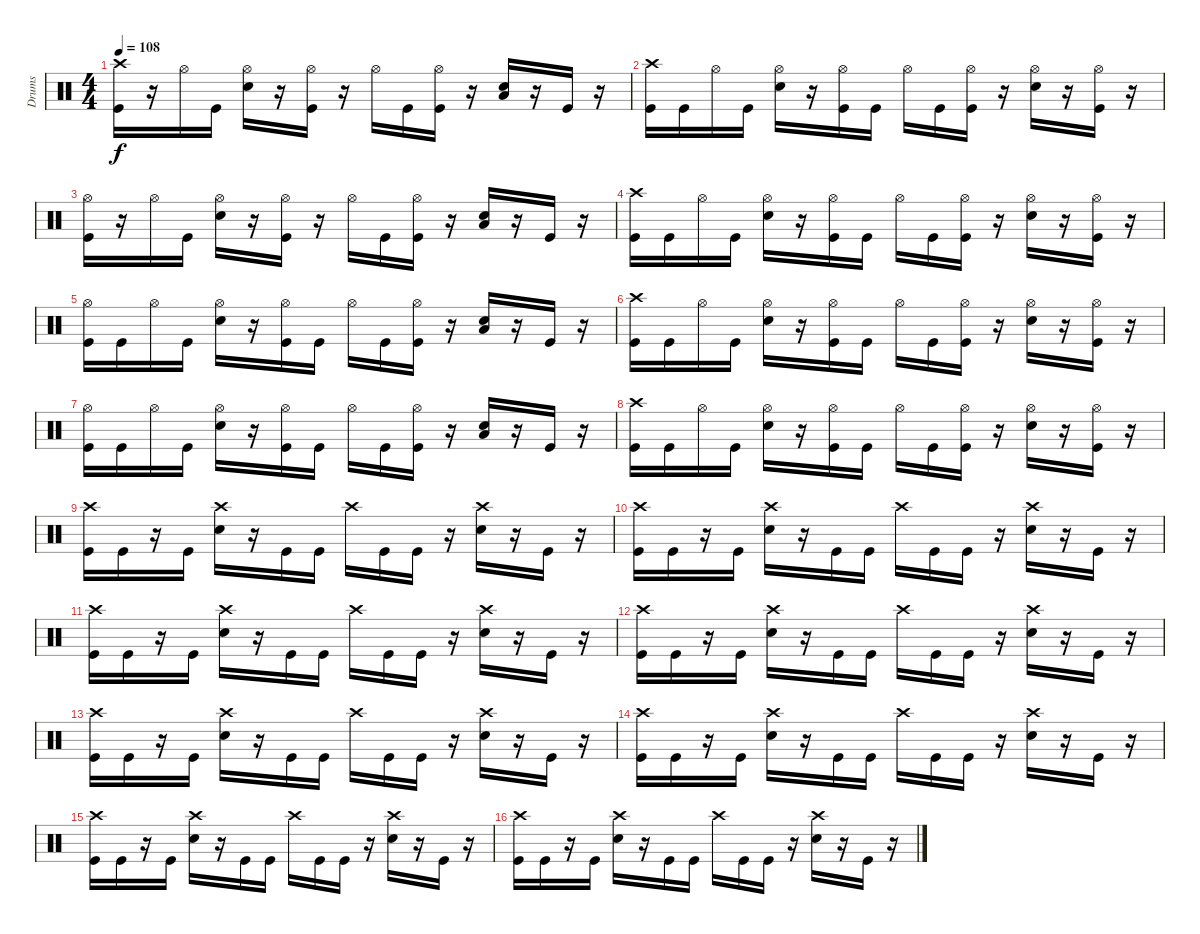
\track ("Drums" "Drums") {instrument percussion}
\staff {score}
\articulation defaults
\ts (4 4)
\tempo 108
\clef neutral
\ks c
("Crash high (hit)" "Kick (hit)").16{dy f} r.16 "Hi-Hat (open)".16 "Kick (hit)".16 ("Hi-Hat (open)" "Electric Snare (hit)").16 r.16 ("Hi-Hat (open)" "Kick (hit)").16 r.16 "Hi-Hat (open)".16 "Kick (hit)".16 ("Hi-Hat (open)" "Kick (hit)").16 r.16 ("Low Floor Tom (hit)" "Electric Snare (hit)").16 r.16 "Kick (hit)".16 r.16 |
("Crash high (hit)" "Kick (hit)").16 "Kick (hit)".16 "Hi-Hat (open)".16 "Kick (hit)".16 ("Hi-Hat (open)" "Electric Snare (hit)").16 r.16 ("Hi-Hat (open)" "Kick (hit)").16 "Kick (hit)".16 "Hi-Hat (open)".16 "Kick (hit)".16 ("Hi-Hat (open)" "Kick (hit)").16 r.16 ("Hi-Hat (open)" "Electric Snare (hit)").16 r.16 ("Hi-Hat (open)" "Kick (hit)").16 r.16 |
("Hi-Hat (open)" "Kick (hit)").16 r.16 "Hi-Hat (open)".16 "Kick (hit)".16 ("Hi-Hat (open)" "Electric Snare (hit)").16 r.16 ("Hi-Hat (open)" "Kick (hit)").16 r.16 "Hi-Hat (open)".16 "Kick (hit)".16 ("Hi-Hat (open)" "Kick (hit)").16 r.16 ("Low Floor Tom (hit)" "Electric Snare (hit)").16 r.16 "Kick (hit)".16 r.16 |
("Crash high (hit)" "Kick (hit)").16 "Kick (hit)".16 "Hi-Hat (open)".16 "Kick (hit)".16 ("Hi-Hat (open)" "Electric Snare (hit)").16 r.16 ("Hi-Hat (open)" "Kick (hit)").16 "Kick (hit)".16 "Hi-Hat (open)".16 "Kick (hit)".16 ("Hi-Hat (open)" "Kick (hit)").16 r.16 ("Hi-Hat (open)" "Electric Snare (hit)").16 r.16 ("Hi-Hat (open)" "Kick (hit)").16 r.16 |
("Hi-Hat (open)" "Kick (hit)").16 "Kick (hit)".16 "Hi-Hat (open)".16 "Kick (hit)".16 ("Hi-Hat (open)" "Electric Snare (hit)").16 r.16 ("Hi-Hat (open)" "Kick (hit)").16 "Kick (hit)".16 "Hi-Hat (open)".16 "Kick (hit)".16 ("Hi-Hat (open)" "Kick (hit)").16 r.16 ("Low Floor Tom (hit)" "Electric Snare (hit)").16 r.16 "Kick (hit)".16 r.16 |
("Crash high (hit)" "Kick (hit)").16 "Kick (hit)".16 "Hi-Hat (open)".16 "Kick (hit)".16 ("Hi-Hat (open)" "Electric Snare (hit)").16 r.16 ("Hi-Hat (open)" "Kick (hit)").16 "Kick (hit)".16 "Hi-Hat (open)".16 "Kick (hit)".16 ("Hi-Hat (open)" "Kick (hit)").16 r.16 ("Hi-Hat (open)" "Electric Snare (hit)").16 r.16 ("Hi-Hat (open)" "Kick (hit)").16 r.16 |
("Hi-Hat (open)" "Kick (hit)").16 "Kick (hit)".16 "Hi-Hat (open)".16 "Kick (hit)".16 ("Hi-Hat (open)" "Electric Snare (hit)").16 r.16 ("Hi-Hat (open)" "Kick (hit)").16 "Kick (hit)".16 "Hi-Hat (open)".16 "Kick (hit)".16 ("Hi-Hat (open)" "Kick (hit)").16 r.16 ("Low Floor Tom (hit)" "Electric Snare (hit)").16 r.16 "Kick (hit)".16 r.16 |
("Crash high (hit)" "Kick (hit)").16 "Kick (hit)".16 "Hi-Hat (open)".16 "Kick (hit)".16 ("Hi-Hat (open)" "Electric Snare (hit)").16 r.16 ("Hi-Hat (open)" "Kick (hit)").16 "Kick (hit)".16 "Hi-Hat (open)".16 "Kick (hit)".16 ("Hi-Hat (open)" "Kick (hit)").16 r.16 ("Hi-Hat (open)" "Electric Snare (hit)").16 r.16 ("Hi-Hat (open)" "Kick (hit)").16 r.16 |
("Crash high (hit)" "Kick (hit)").16 "Kick (hit)".16 r.16 "Kick (hit)".16 ("Crash high (hit)" "Electric Snare (hit)").16 r.16 "Kick (hit)".16 "Kick (hit)".16 "Crash high (hit)".16 "Kick (hit)".16 "Kick (hit)".16 r.16 ("Crash high (hit)" "Electric Snare (hit)").16 r.16 "Kick (hit)".16 r.16 |
("Crash high (hit)" "Kick (hit)").16 "Kick (hit)".16 r.16 "Kick (hit)".16 ("Crash high (hit)" "Electric Snare (hit)").16 r.16 "Kick (hit)".16 "Kick (hit)".16 "Crash high (hit)".16 "Kick (hit)".16 "Kick (hit)".16 r.16 ("Crash high (hit)" "Electric Snare (hit)").16 r.16 "Kick (hit)".16 r.16 |
("Crash high (hit)" "Kick (hit)").16 "Kick (hit)".16 r.16 "Kick (hit)".16 ("Crash high (hit)" "Electric Snare (hit)").16 r.16 "Kick (hit)".16 "Kick (hit)".16 "Crash high (hit)".16 "Kick (hit)".16 "Kick (hit)".16 r.16 ("Crash high (hit)" "Electric Snare (hit)").16 r.16 "Kick (hit)".16 r.16 |
("Crash high (hit)" "Kick (hit)").16 "Kick (hit)".16 r.16 "Kick (hit)".16 ("Crash high (hit)" "Electric Snare (hit)").16 r.16 "Kick (hit)".16 "Kick (hit)".16 "Crash high (hit)".16 "Kick (hit)".16 "Kick (hit)".16 r.16 ("Crash high (hit)" "Electric Snare (hit)").16 r.16 "Kick (hit)".16 r.16 |
("Crash high (hit)" "Kick (hit)").16 "Kick (hit)".16 r.16 "Kick (hit)".16 ("Crash high (hit)" "Electric Snare (hit)").16 r.16 "Kick (hit)".16 "Kick (hit)".16 "Crash high (hit)".16 "Kick (hit)".16 "Kick (hit)".16 r.16 ("Crash high (hit)" "Electric Snare (hit)").16 r.16 "Kick (hit)".16 r.16 |
("Crash high (hit)" "Kick (hit)").16 "Kick (hit)".16 r.16 "Kick (hit)".16 ("Crash high (hit)" "Electric Snare (hit)").16 r.16 "Kick (hit)".16 "Kick (hit)".16 "Crash high (hit)".16 "Kick (hit)".16 "Kick (hit)".16 r.16 ("Crash high (hit)" "Electric Snare (hit)").16 r.16 "Kick (hit)".16 r.16 |
("Crash high (hit)" "Kick (hit)").16 "Kick (hit)".16 r.16 "Kick (hit)".16 ("Crash high (hit)" "Electric Snare (hit)").16 r.16 "Kick (hit)".16 "Kick (hit)".16 "Crash high (hit)".16 "Kick (hit)".16 "Kick (hit)".16 r.16 ("Crash high (hit)" "Electric Snare (hit)").16 r.16 "Kick (hit)".16 r.16 |
("Crash high (hit)" "Kick (hit)").16 "Kick (hit)".16 r.16 "Kick (hit)".16 ("Crash high (hit)" "Electric Snare (hit)").16 r.16 "Kick (hit)".16 "Kick (hit)".16 "Crash high (hit)".16 "Kick (hit)".16 "Kick (hit)".16 r.16 ("Crash high (hit)" "Electric Snare (hit)").16 r.16 "Kick (hit)".16 r.16
